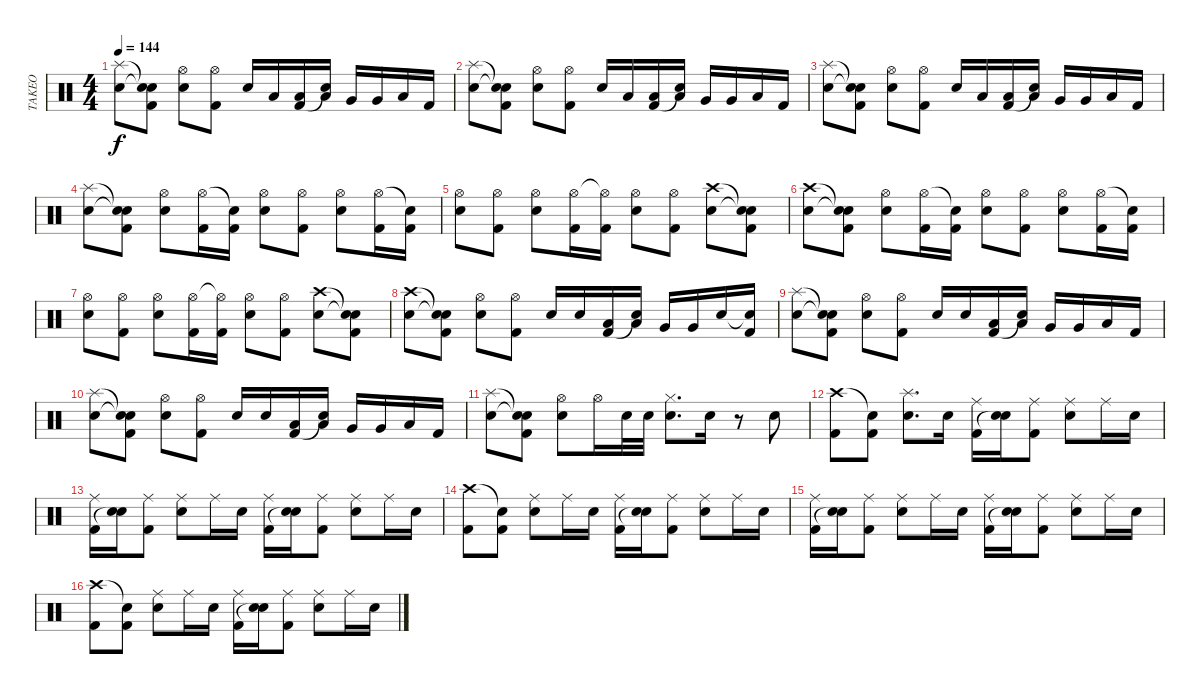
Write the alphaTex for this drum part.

\track ("TAKEO" "TAKEO") {instrument percussion}
\staff {score}
\articulation defaults
\ts (4 4)
\tempo 144
\clef neutral
\ks c
("Splash (hit)" "Electric Snare (hit)").8{dy f} ("Snare (hit)"{t} "Snare (hit)"{t} "Kick (hit) 2").8 ("Hi-Hat (open)" "Electric Snare (hit)").8 ("Hi-Hat (open)" "Kick (hit) 2").8 "Electric Snare (hit)".16 "Low Tom (hit)".16 ("Low Tom (hit)" "Kick (hit) 2").16 ("Low Tom (hit)" "Snare (hit)"{t}).16 "Very Low Tom (hit)".16 "Very Low Tom (hit)".16 "Low Floor Tom (hit)".16 "Kick (hit) 2".16 |
("Splash (hit)" "Electric Snare (hit)").8 ("Snare (hit)"{t} "Snare (hit)"{t} "Kick (hit) 2").8 ("Hi-Hat (open)" "Electric Snare (hit)").8 ("Hi-Hat (open)" "Kick (hit) 2").8 "Electric Snare (hit)".16 "Low Tom (hit)".16 ("Low Tom (hit)" "Kick (hit) 2").16 ("Low Tom (hit)" "Snare (hit)"{t}).16 "Very Low Tom (hit)".16 "Very Low Tom (hit)".16 "Low Floor Tom (hit)".16 "Kick (hit) 2".16 |
("Splash (hit)" "Electric Snare (hit)").8 ("Snare (hit)"{t} "Snare (hit)"{t} "Kick (hit) 2").8 ("Hi-Hat (open)" "Electric Snare (hit)").8 ("Hi-Hat (open)" "Kick (hit) 2").8 "Electric Snare (hit)".16 "Low Tom (hit)".16 ("Low Tom (hit)" "Kick (hit) 2").16 ("Low Tom (hit)" "Snare (hit)"{t}).16 "Very Low Tom (hit)".16 "Very Low Tom (hit)".16 "Low Floor Tom (hit)".16 "Kick (hit) 2".16 |
("Splash (hit)" "Electric Snare (hit)").8 ("Snare (hit)"{t} "Snare (hit)"{t} "Kick (hit) 2").8 ("Hi-Hat (open)" "Electric Snare (hit)").8 ("Hi-Hat (open)" "Kick (hit) 2").16 ("Snare (hit)"{t} "Kick (hit) 2").16 ("Hi-Hat (open)" "Electric Snare (hit)").8 ("Hi-Hat (open)" "Kick (hit) 2").8 ("Hi-Hat (open)" "Electric Snare (hit)").8 ("Hi-Hat (open)" "Kick (hit) 2").16 ("Snare (hit)"{t} "Kick (hit) 2").16 |
("Hi-Hat (open)" "Electric Snare (hit)").8 ("Hi-Hat (open)" "Kick (hit) 2").8 ("Hi-Hat (open)" "Electric Snare (hit)").8 ("Hi-Hat (open)" "Kick (hit) 2").16 ("Hi-Hat (open)"{t} "Kick (hit) 2").16 ("Hi-Hat (open)" "Electric Snare (hit)").8 ("Hi-Hat (open)" "Kick (hit) 2").8 ("Crash high (hit)" "Electric Snare (hit)").8 ("Snare (hit)"{t} "Snare (hit)"{t} "Kick (hit) 2").8 |
("Crash high (hit)" "Electric Snare (hit)").8 ("Snare (hit)"{t} "Snare (hit)"{t} "Kick (hit) 2").8 ("Hi-Hat (open)" "Electric Snare (hit)").8 ("Hi-Hat (open)" "Kick (hit) 2").16 ("Snare (hit)"{t} "Kick (hit) 2").16 ("Hi-Hat (open)" "Electric Snare (hit)").8 ("Hi-Hat (open)" "Kick (hit) 2").8 ("Hi-Hat (open)" "Electric Snare (hit)").8 ("Hi-Hat (open)" "Kick (hit) 2").16 ("Snare (hit)"{t} "Kick (hit) 2").16 |
("Hi-Hat (open)" "Electric Snare (hit)").8 ("Hi-Hat (open)" "Kick (hit) 2").8 ("Hi-Hat (open)" "Electric Snare (hit)").8 ("Hi-Hat (open)" "Kick (hit) 2").16 ("Hi-Hat (open)"{t} "Kick (hit) 2").16 ("Hi-Hat (open)" "Electric Snare (hit)").8 ("Hi-Hat (open)" "Kick (hit) 2").8 ("Crash high (hit)" "Electric Snare (hit)").8 ("Snare (hit)"{t} "Snare (hit)"{t} "Kick (hit) 2").8 |
("Crash high (hit)" "Electric Snare (hit)").8 ("Snare (hit)"{t} "Snare (hit)"{t} "Kick (hit) 2").8 ("Hi-Hat (open)" "Electric Snare (hit)").8 ("Hi-Hat (open)" "Kick (hit) 2").8 "Electric Snare (hit)".16 "Electric Snare (hit)".16 ("Low Tom (hit)" "Kick (hit) 2").16 ("Low Tom (hit)" "Snare (hit)"{t}).16 "Very Low Tom (hit)".16 "Very Low Tom (hit)".16 "Electric Snare (hit)".16 ("Snare (hit)"{t} "Kick (hit) 2").16 |
("Splash (hit)" "Electric Snare (hit)").8 ("Snare (hit)"{t} "Snare (hit)"{t} "Kick (hit) 2").8 ("Hi-Hat (open)" "Electric Snare (hit)").8 ("Hi-Hat (open)" "Kick (hit) 2").8 "Electric Snare (hit)".16 "Electric Snare (hit)".16 ("Low Tom (hit)" "Kick (hit) 2").16 ("Low Tom (hit)" "Snare (hit)"{t}).16 "Very Low Tom (hit)".16 "Very Low Tom (hit)".16 "Low Floor Tom (hit)".16 "Kick (hit) 2".16 |
("Splash (hit)" "Electric Snare (hit)").8 ("Snare (hit)"{t} "Snare (hit)"{t} "Kick (hit) 2").8 ("Hi-Hat (open)" "Electric Snare (hit)").8 ("Hi-Hat (open)" "Kick (hit) 2").8 "Electric Snare (hit)".16 "Electric Snare (hit)".16 ("Low Tom (hit)" "Kick (hit) 2").16 ("Low Tom (hit)" "Snare (hit)"{t}).16 "Very Low Tom (hit)".16 "Very Low Tom (hit)".16 "Low Floor Tom (hit)".16 "Kick (hit) 2".16 |
("Splash (hit)" "Electric Snare (hit)").8 ("Snare (hit)"{t} "Snare (hit)"{t} "Kick (hit) 2").8 ("Hi-Hat (open)" "Electric Snare (hit)").8 "Hi-Hat (open)".16 "Electric Snare (hit)".32 "Electric Snare (hit)".32 ("Hi-Hat (closed)" "Electric Snare (hit)").8{d} "Electric Snare (hit)".16 r.8 "Electric Snare (hit)".8 |
("Crash high (hit)" "Kick (hit) 2").8 ("Snare (hit)"{t} "Kick (hit) 2").8 ("Splash (hit)" "Electric Snare (hit)").8{d} "Electric Snare (hit)".16 ("Ride (middle)" "Kick (hit) 2").16 ("Electric Snare (hit)" "Snare (hit)"{t}).16 ("Ride (middle)" "Kick (hit) 2").8 ("Ride (middle)" "Electric Snare (hit)").8 "Ride (middle)".16 "Electric Snare (hit)".16 |
("Ride (middle)" "Kick (hit) 2").16 ("Electric Snare (hit)" "Snare (hit)"{t}).16 ("Ride (middle)" "Kick (hit) 2").8 ("Ride (middle)" "Electric Snare (hit)").8 "Ride (middle)".16 "Electric Snare (hit)".16 ("Ride (middle)" "Kick (hit) 2").16 ("Electric Snare (hit)" "Snare (hit)"{t}).16 ("Ride (middle)" "Kick (hit) 2").8 ("Ride (middle)" "Electric Snare (hit)").8 "Ride (middle)".16 "Electric Snare (hit)".16 |
("Crash high (hit)" "Kick (hit) 2").8 ("Snare (hit)"{t} "Kick (hit) 2").8 ("Ride (middle)" "Electric Snare (hit)").8 "Ride (middle)".16 "Electric Snare (hit)".16 ("Ride (middle)" "Kick (hit) 2").16 ("Electric Snare (hit)" "Snare (hit)"{t}).16 ("Ride (middle)" "Kick (hit) 2").8 ("Ride (middle)" "Electric Snare (hit)").8 "Ride (middle)".16 "Electric Snare (hit)".16 |
("Ride (middle)" "Kick (hit) 2").16 ("Electric Snare (hit)" "Snare (hit)"{t}).16 ("Ride (middle)" "Kick (hit) 2").8 ("Ride (middle)" "Electric Snare (hit)").8 "Ride (middle)".16 "Electric Snare (hit)".16 ("Ride (middle)" "Kick (hit) 2").16 ("Electric Snare (hit)" "Snare (hit)"{t}).16 ("Ride (middle)" "Kick (hit) 2").8 ("Ride (middle)" "Electric Snare (hit)").8 "Ride (middle)".16 "Electric Snare (hit)".16 |
("Crash high (hit)" "Kick (hit) 2").8 ("Snare (hit)"{t} "Kick (hit) 2").8 ("Ride (middle)" "Electric Snare (hit)").8 "Ride (middle)".16 "Electric Snare (hit)".16 ("Ride (middle)" "Kick (hit) 2").16 ("Electric Snare (hit)" "Snare (hit)"{t}).16 ("Ride (middle)" "Kick (hit) 2").8 ("Ride (middle)" "Electric Snare (hit)").8 "Ride (middle)".16 "Electric Snare (hit)".16
